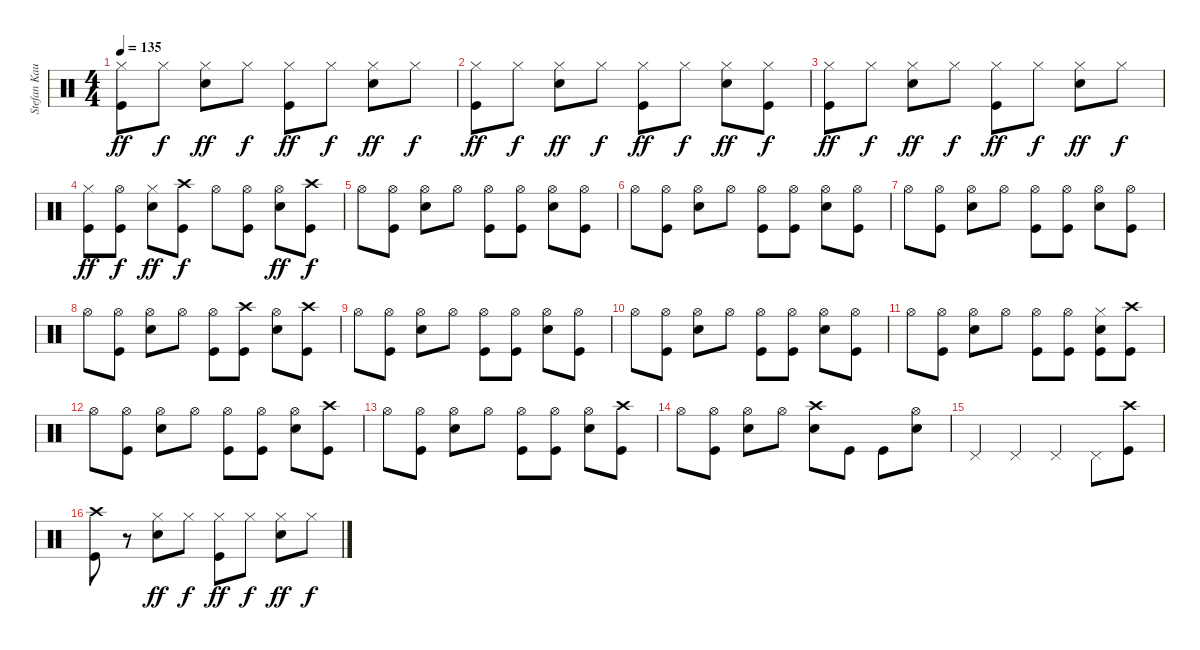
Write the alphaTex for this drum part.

\track ("Stefan Kaufmann" "Stefan Kau") {instrument percussion}
\staff {score}
\articulation defaults
\ts (4 4)
\tempo 135
\clef neutral
\ks c
("Hi-Hat (closed)" "Kick (hit)").8{dy ff} "Hi-Hat (closed)".8{dy f} ("Hi-Hat (closed)" "Snare (hit) 2").8{dy ff} "Hi-Hat (closed)".8{dy f} ("Hi-Hat (closed)" "Kick (hit)").8{dy ff} "Hi-Hat (closed)".8{dy f} ("Hi-Hat (closed)" "Snare (hit) 2").8{dy ff} "Hi-Hat (closed)".8{dy f} |
("Hi-Hat (closed)" "Kick (hit)").8{dy ff} "Hi-Hat (closed)".8{dy f} ("Hi-Hat (closed)" "Snare (hit) 2").8{dy ff} "Hi-Hat (closed)".8{dy f} ("Hi-Hat (closed)" "Kick (hit)").8{dy ff} "Hi-Hat (closed)".8{dy f} ("Hi-Hat (closed)" "Snare (hit) 2").8{dy ff} ("Hi-Hat (closed)" "Kick (hit)").8{dy f} |
("Hi-Hat (closed)" "Kick (hit)").8{dy ff} "Hi-Hat (closed)".8{dy f} ("Hi-Hat (closed)" "Snare (hit) 2").8{dy ff} "Hi-Hat (closed)".8{dy f} ("Hi-Hat (closed)" "Kick (hit)").8{dy ff} "Hi-Hat (closed)".8{dy f} ("Hi-Hat (closed)" "Snare (hit) 2").8{dy ff} "Hi-Hat (closed)".8{dy f} |
("Hi-Hat (closed)" "Kick (hit)").8{dy ff} ("Hi-Hat (open)" "Kick (hit)").8{dy f} ("Hi-Hat (closed)" "Snare (hit) 2").8{dy ff} ("Crash high (hit)" "Kick (hit)").8{dy f} "Hi-Hat (open)".8 ("Hi-Hat (open)" "Kick (hit)").8 ("Hi-Hat (open)" "Snare (hit) 2").8{dy ff} ("Crash high (hit)" "Kick (hit)").8{dy f} |
"Hi-Hat (open)".8 ("Hi-Hat (open)" "Kick (hit)").8 ("Hi-Hat (open)" "Snare (hit) 2").8 "Hi-Hat (open)".8 ("Hi-Hat (open)" "Kick (hit)").8 ("Hi-Hat (open)" "Kick (hit)").8 ("Hi-Hat (open)" "Snare (hit) 2").8 ("Hi-Hat (open)" "Kick (hit)").8 |
"Hi-Hat (open)".8 ("Hi-Hat (open)" "Kick (hit)").8 ("Hi-Hat (open)" "Snare (hit) 2").8 "Hi-Hat (open)".8 ("Hi-Hat (open)" "Kick (hit)").8 ("Hi-Hat (open)" "Kick (hit)").8 ("Hi-Hat (open)" "Snare (hit) 2").8 ("Hi-Hat (open)" "Kick (hit)").8 |
"Hi-Hat (open)".8 ("Hi-Hat (open)" "Kick (hit)").8 ("Hi-Hat (open)" "Snare (hit) 2").8 "Hi-Hat (open)".8 ("Hi-Hat (open)" "Kick (hit)").8 ("Hi-Hat (open)" "Kick (hit)").8 ("Hi-Hat (open)" "Snare (hit) 2").8 ("Hi-Hat (open)" "Kick (hit)").8 |
"Hi-Hat (open)".8 ("Hi-Hat (open)" "Kick (hit)").8 ("Hi-Hat (open)" "Snare (hit) 2").8 "Hi-Hat (open)".8 ("Hi-Hat (open)" "Kick (hit)").8 ("Crash high (hit)" "Kick (hit)").8 ("Hi-Hat (open)" "Snare (hit) 2").8 ("Crash high (hit)" "Kick (hit)").8 |
"Hi-Hat (open)".8 ("Hi-Hat (open)" "Kick (hit)").8 ("Hi-Hat (open)" "Snare (hit) 2").8 "Hi-Hat (open)".8 ("Hi-Hat (open)" "Kick (hit)").8 ("Hi-Hat (open)" "Kick (hit)").8 ("Hi-Hat (open)" "Snare (hit) 2").8 ("Hi-Hat (open)" "Kick (hit)").8 |
"Hi-Hat (open)".8 ("Hi-Hat (open)" "Kick (hit)").8 ("Hi-Hat (open)" "Snare (hit) 2").8 "Hi-Hat (open)".8 ("Hi-Hat (open)" "Kick (hit)").8 ("Hi-Hat (open)" "Kick (hit)").8 ("Hi-Hat (open)" "Snare (hit) 2").8 ("Hi-Hat (open)" "Kick (hit)").8 |
"Hi-Hat (open)".8 ("Hi-Hat (open)" "Kick (hit)").8 ("Hi-Hat (open)" "Snare (hit) 2").8 "Hi-Hat (open)".8 ("Hi-Hat (open)" "Kick (hit)").8 ("Hi-Hat (open)" "Kick (hit)").8 ("Hi-Hat (closed)" "Snare (hit) 2" "Kick (hit)").8 ("Crash high (hit)" "Kick (hit)").8 |
"Hi-Hat (open)".8 ("Hi-Hat (open)" "Kick (hit)").8 ("Hi-Hat (open)" "Snare (hit) 2").8 "Hi-Hat (open)".8 ("Hi-Hat (open)" "Kick (hit)").8 ("Hi-Hat (open)" "Kick (hit)").8 ("Hi-Hat (open)" "Snare (hit) 2").8 ("Crash high (hit)" "Kick (hit)").8 |
"Hi-Hat (open)".8 ("Hi-Hat (open)" "Kick (hit)").8 ("Hi-Hat (open)" "Snare (hit) 2").8 "Hi-Hat (open)".8 ("Hi-Hat (open)" "Kick (hit)").8 ("Hi-Hat (open)" "Kick (hit)").8 ("Hi-Hat (open)" "Snare (hit) 2").8 ("Crash high (hit)" "Kick (hit)").8 |
"Hi-Hat (open)".8 ("Hi-Hat (open)" "Kick (hit)").8 ("Hi-Hat (open)" "Snare (hit) 2").8 "Hi-Hat (open)".8 ("Crash high (hit)" "Snare (hit) 2").8 "Kick (hit)".8 "Kick (hit)".8 ("Hi-Hat (open)" "Snare (hit) 2").8 |
"Pedal Hi-Hat (hit)".4 "Pedal Hi-Hat (hit)".4 "Pedal Hi-Hat (hit)".4 "Pedal Hi-Hat (hit)".8 ("Crash high (hit)" "Kick (hit)").8 |
("Crash high (hit)" "Kick (hit)").8 r.8 ("Hi-Hat (closed)" "Snare (hit) 2").8{dy ff} "Hi-Hat (closed)".8{dy f} ("Hi-Hat (closed)" "Kick (hit)").8{dy ff} "Hi-Hat (closed)".8{dy f} ("Hi-Hat (closed)" "Snare (hit) 2").8{dy ff} "Hi-Hat (closed)".8{dy f}
